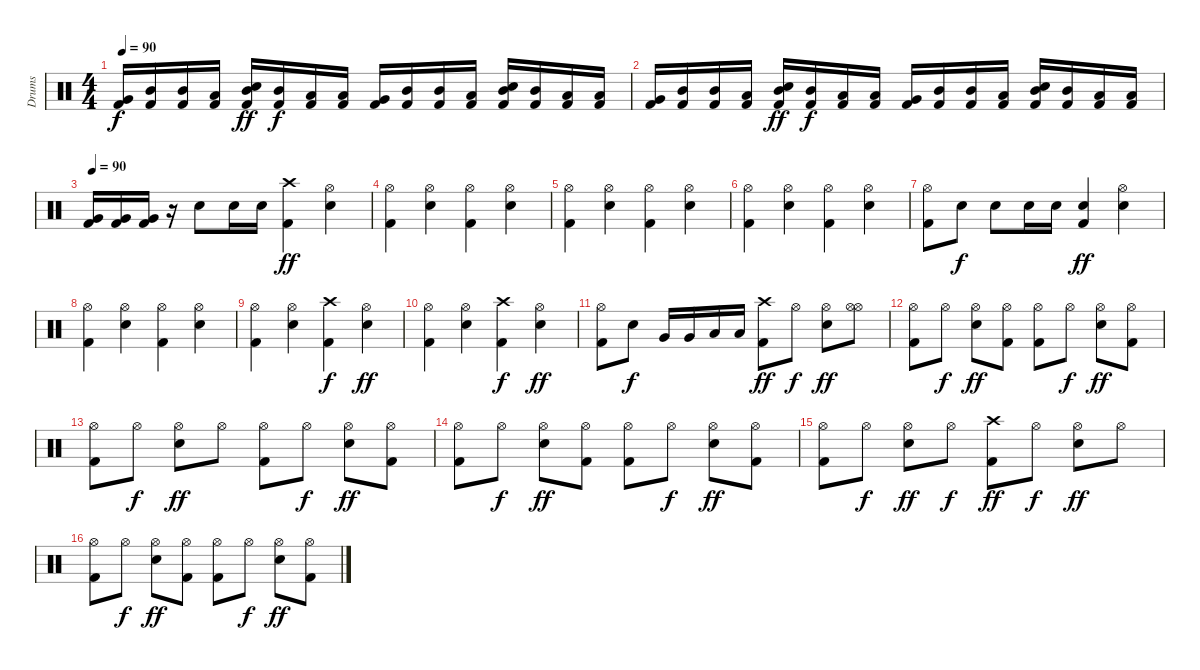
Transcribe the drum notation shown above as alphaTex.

\track ("Drums" "Drums") {instrument percussion}
\staff {score}
\articulation defaults
\ts (4 4)
\tempo 90
\clef neutral
\ks c
("Very Low Tom (hit)" "Kick (hit) 2").16{dy f} ("Mid Tom (hit)" "Kick (hit) 2").16 ("Mid Tom (hit)" "Kick (hit) 2").16 ("Low Tom (hit)" "Kick (hit) 2").16 ("Mid Tom (hit)" "Electric Snare (hit)" "Kick (hit) 2").16{dy ff} ("Mid Tom (hit)" "Kick (hit) 2").16{dy f} ("Low Tom (hit)" "Kick (hit) 2").16 ("Low Tom (hit)" "Kick (hit) 2").16 ("Very Low Tom (hit)" "Kick (hit) 2").16 ("Mid Tom (hit)" "Kick (hit) 2").16 ("Mid Tom (hit)" "Kick (hit) 2").16 ("Low Tom (hit)" "Kick (hit) 2").16 ("Mid Tom (hit)" "Electric Snare (hit)" "Kick (hit) 2").16 ("Mid Tom (hit)" "Kick (hit) 2").16 ("Low Tom (hit)" "Kick (hit) 2").16 ("Low Tom (hit)" "Kick (hit) 2").16 |
("Very Low Tom (hit)" "Kick (hit) 2").16 ("Mid Tom (hit)" "Kick (hit) 2").16 ("Mid Tom (hit)" "Kick (hit) 2").16 ("Low Tom (hit)" "Kick (hit) 2").16 ("Mid Tom (hit)" "Electric Snare (hit)" "Kick (hit) 2").16{dy ff} ("Mid Tom (hit)" "Kick (hit) 2").16{dy f} ("Low Tom (hit)" "Kick (hit) 2").16 ("Low Tom (hit)" "Kick (hit) 2").16 ("Very Low Tom (hit)" "Kick (hit) 2").16 ("Mid Tom (hit)" "Kick (hit) 2").16 ("Mid Tom (hit)" "Kick (hit) 2").16 ("Low Tom (hit)" "Kick (hit) 2").16 ("Mid Tom (hit)" "Electric Snare (hit)" "Kick (hit) 2").16 ("Mid Tom (hit)" "Kick (hit) 2").16 ("Low Tom (hit)" "Kick (hit) 2").16 ("Low Tom (hit)" "Kick (hit) 2").16 |
\tempo 90
("Very Low Tom (hit)" "Kick (hit) 2").16 ("Very Low Tom (hit)" "Kick (hit) 2").16 ("Very Low Tom (hit)" "Kick (hit) 2").16 r.16 "Electric Snare (hit)".8 "Electric Snare (hit)".16 "Electric Snare (hit)".16 ("Crash high (hit)" "Kick (hit) 2").4{dy ff} ("Hi-Hat (open)" "Electric Snare (hit)").4 |
("Hi-Hat (open)" "Kick (hit) 2").4 ("Hi-Hat (open)" "Electric Snare (hit)").4 ("Hi-Hat (open)" "Kick (hit) 2").4 ("Hi-Hat (open)" "Electric Snare (hit)").4 |
("Hi-Hat (open)" "Kick (hit) 2").4 ("Hi-Hat (open)" "Electric Snare (hit)").4 ("Hi-Hat (open)" "Kick (hit) 2").4 ("Hi-Hat (open)" "Electric Snare (hit)").4 |
("Hi-Hat (open)" "Kick (hit) 2").4 ("Hi-Hat (open)" "Electric Snare (hit)").4 ("Hi-Hat (open)" "Kick (hit) 2").4 ("Hi-Hat (open)" "Electric Snare (hit)").4 |
("Hi-Hat (open)" "Kick (hit) 2").8 "Electric Snare (hit)".8{dy f} "Electric Snare (hit)".8 "Electric Snare (hit)".16 "Electric Snare (hit)".16 ("Electric Snare (hit)" "Kick (hit) 2").4{dy ff} ("Hi-Hat (open)" "Electric Snare (hit)").4 |
("Hi-Hat (open)" "Kick (hit) 2").4 ("Hi-Hat (open)" "Electric Snare (hit)").4 ("Hi-Hat (open)" "Kick (hit) 2").4 ("Hi-Hat (open)" "Electric Snare (hit)").4 |
("Hi-Hat (open)" "Kick (hit) 2").4 ("Hi-Hat (open)" "Electric Snare (hit)").4 ("Crash high (hit)" "Kick (hit) 2").4{dy f} ("Hi-Hat (open)" "Electric Snare (hit)").4{dy ff} |
("Hi-Hat (open)" "Kick (hit) 2").4 ("Hi-Hat (open)" "Electric Snare (hit)").4 ("Crash high (hit)" "Kick (hit) 2").4{dy f} ("Hi-Hat (open)" "Electric Snare (hit)").4{dy ff} |
("Hi-Hat (open)" "Kick (hit) 2").8 "Electric Snare (hit)".8{dy f} "Very Low Tom (hit)".16 "Very Low Tom (hit)".16 "Low Floor Tom (hit)".16 "Low Floor Tom (hit)".16 ("Crash high (hit)" "Kick (hit) 2").8{dy ff} "Hi-Hat (open)".8{dy f} ("Hi-Hat (open)" "Electric Snare (hit)").8{dy ff} ("Hi-Hat (open)" "Hi-Hat (open)").8 |
("Hi-Hat (open)" "Kick (hit) 2").8 "Hi-Hat (open)".8{dy f} ("Hi-Hat (open)" "Electric Snare (hit)").8{dy ff} ("Hi-Hat (open)" "Kick (hit) 2").8 ("Hi-Hat (open)" "Kick (hit) 2").8 "Hi-Hat (open)".8{dy f} ("Hi-Hat (open)" "Electric Snare (hit)").8{dy ff} ("Hi-Hat (open)" "Kick (hit) 2").8 |
("Hi-Hat (open)" "Kick (hit) 2").8 "Hi-Hat (open)".8{dy f} ("Hi-Hat (open)" "Electric Snare (hit)").8{dy ff} "Hi-Hat (open)".8 ("Hi-Hat (open)" "Kick (hit) 2").8 "Hi-Hat (open)".8{dy f} ("Hi-Hat (open)" "Electric Snare (hit)").8{dy ff} ("Hi-Hat (open)" "Kick (hit) 2").8 |
("Hi-Hat (open)" "Kick (hit) 2").8 "Hi-Hat (open)".8{dy f} ("Hi-Hat (open)" "Electric Snare (hit)").8{dy ff} ("Hi-Hat (open)" "Kick (hit) 2").8 ("Hi-Hat (open)" "Kick (hit) 2").8 "Hi-Hat (open)".8{dy f} ("Hi-Hat (open)" "Electric Snare (hit)").8{dy ff} ("Hi-Hat (open)" "Kick (hit) 2").8 |
("Hi-Hat (open)" "Kick (hit) 2").8 "Hi-Hat (open)".8{dy f} ("Hi-Hat (open)" "Electric Snare (hit)").8{dy ff} "Hi-Hat (open)".8{dy f} ("Crash high (hit)" "Kick (hit) 2").8{dy ff} "Hi-Hat (open)".8{dy f} ("Hi-Hat (open)" "Electric Snare (hit)").8{dy ff} "Hi-Hat (open)".8 |
("Hi-Hat (open)" "Kick (hit) 2").8 "Hi-Hat (open)".8{dy f} ("Hi-Hat (open)" "Electric Snare (hit)").8{dy ff} ("Hi-Hat (open)" "Kick (hit) 2").8 ("Hi-Hat (open)" "Kick (hit) 2").8 "Hi-Hat (open)".8{dy f} ("Hi-Hat (open)" "Electric Snare (hit)").8{dy ff} ("Hi-Hat (open)" "Kick (hit) 2").8
